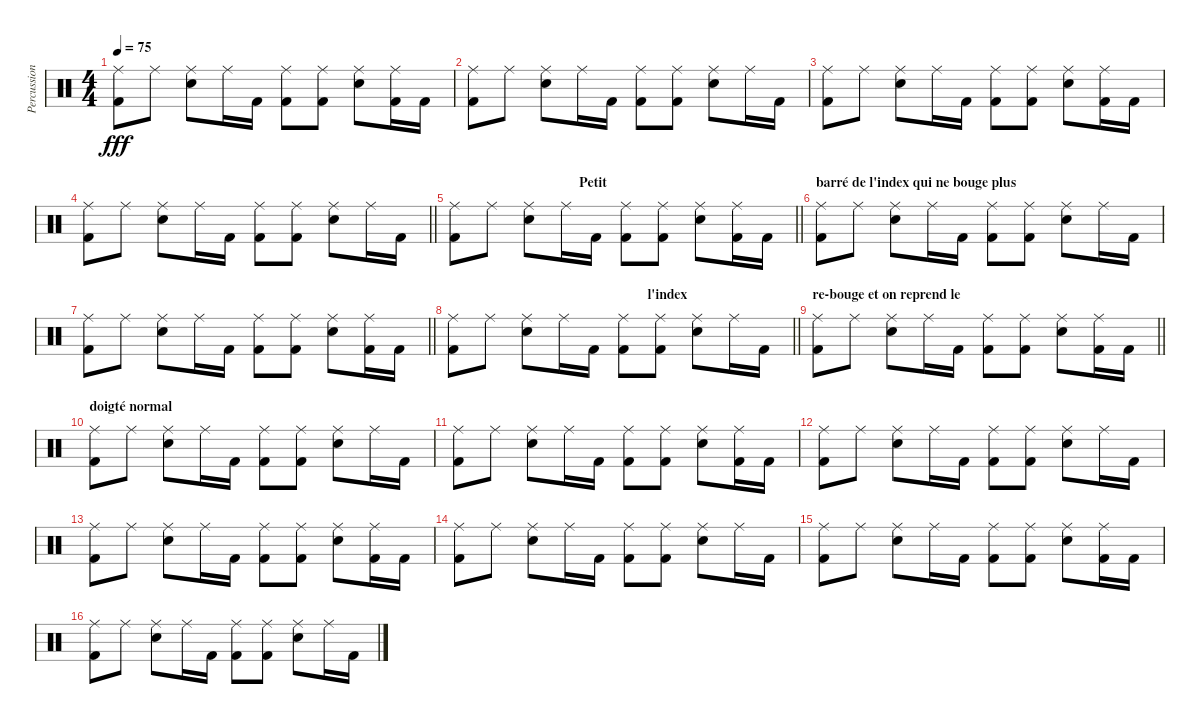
\track ("Percussions" "Percussion") {instrument percussion}
\staff {score}
\articulation defaults
\ts (4 4)
\tempo 75
\clef neutral
\ks c
("Kick (hit) 2" "Ride (middle)").8{dy fff} "Ride (middle)".8 ("Ride (middle)" "Snare (hit) 2").8 "Ride (middle)".16 "Kick (hit) 2".16 ("Ride (middle)" "Kick (hit) 2").8 ("Kick (hit) 2" "Ride (middle)").8 ("Ride (middle)" "Snare (hit) 2").8 ("Ride (middle)" "Kick (hit) 2").16 "Kick (hit) 2".16 |
("Kick (hit) 2" "Ride (middle)").8 "Ride (middle)".8 ("Ride (middle)" "Snare (hit) 2").8 "Ride (middle)".16 "Kick (hit) 2".16 ("Ride (middle)" "Kick (hit) 2").8 ("Kick (hit) 2" "Ride (middle)").8 ("Ride (middle)" "Snare (hit) 2").8 "Ride (middle)".16 "Kick (hit) 2".16 |
("Kick (hit) 2" "Ride (middle)").8 "Ride (middle)".8 ("Ride (middle)" "Snare (hit) 2").8 "Ride (middle)".16 "Kick (hit) 2".16 ("Ride (middle)" "Kick (hit) 2").8 ("Kick (hit) 2" "Ride (middle)").8 ("Ride (middle)" "Snare (hit) 2").8 ("Ride (middle)" "Kick (hit) 2").16 "Kick (hit) 2".16 |
\barLineRight lightlight
("Kick (hit) 2" "Ride (middle)").8 "Ride (middle)".8 ("Ride (middle)" "Snare (hit) 2").8 "Ride (middle)".16 "Kick (hit) 2".16 ("Ride (middle)" "Kick (hit) 2").8 ("Kick (hit) 2" "Ride (middle)").8 ("Ride (middle)" "Snare (hit) 2").8 "Ride (middle)".16 "Kick (hit) 2".16 |
\section ("" "                                     Petit")
\barLineRight lightlight
("Kick (hit) 2" "Ride (middle)").8 "Ride (middle)".8 ("Ride (middle)" "Snare (hit) 2").8 "Ride (middle)".16 "Kick (hit) 2".16 ("Ride (middle)" "Kick (hit) 2").8 ("Kick (hit) 2" "Ride (middle)").8 ("Ride (middle)" "Snare (hit) 2").8 ("Ride (middle)" "Kick (hit) 2").16 "Kick (hit) 2".16 |
\section ("" "barré de l'index qui ne bouge plus")
("Kick (hit) 2" "Ride (middle)").8 "Ride (middle)".8 ("Ride (middle)" "Snare (hit) 2").8 "Ride (middle)".16 "Kick (hit) 2".16 ("Ride (middle)" "Kick (hit) 2").8 ("Kick (hit) 2" "Ride (middle)").8 ("Ride (middle)" "Snare (hit) 2").8 "Ride (middle)".16 "Kick (hit) 2".16 |
\barLineRight lightlight
("Kick (hit) 2" "Ride (middle)").8 "Ride (middle)".8 ("Ride (middle)" "Snare (hit) 2").8 "Ride (middle)".16 "Kick (hit) 2".16 ("Ride (middle)" "Kick (hit) 2").8 ("Kick (hit) 2" "Ride (middle)").8 ("Ride (middle)" "Snare (hit) 2").8 ("Ride (middle)" "Kick (hit) 2").16 "Kick (hit) 2".16 |
\section ("" "                                                         l'index")
\barLineRight lightlight
("Kick (hit) 2" "Ride (middle)").8 "Ride (middle)".8 ("Ride (middle)" "Snare (hit) 2").8 "Ride (middle)".16 "Kick (hit) 2".16 ("Ride (middle)" "Kick (hit) 2").8 ("Kick (hit) 2" "Ride (middle)").8 ("Ride (middle)" "Snare (hit) 2").8 "Ride (middle)".16 "Kick (hit) 2".16 |
\section ("" "re-bouge et on reprend le")
\barLineRight lightlight
("Kick (hit) 2" "Ride (middle)").8 "Ride (middle)".8 ("Ride (middle)" "Snare (hit) 2").8 "Ride (middle)".16 "Kick (hit) 2".16 ("Ride (middle)" "Kick (hit) 2").8 ("Kick (hit) 2" "Ride (middle)").8 ("Ride (middle)" "Snare (hit) 2").8 ("Ride (middle)" "Kick (hit) 2").16 "Kick (hit) 2".16 |
\section ("" "doigté normal")
("Kick (hit) 2" "Ride (middle)").8 "Ride (middle)".8 ("Ride (middle)" "Snare (hit) 2").8 "Ride (middle)".16 "Kick (hit) 2".16 ("Ride (middle)" "Kick (hit) 2").8 ("Kick (hit) 2" "Ride (middle)").8 ("Ride (middle)" "Snare (hit) 2").8 "Ride (middle)".16 "Kick (hit) 2".16 |
("Kick (hit) 2" "Ride (middle)").8 "Ride (middle)".8 ("Ride (middle)" "Snare (hit) 2").8 "Ride (middle)".16 "Kick (hit) 2".16 ("Ride (middle)" "Kick (hit) 2").8 ("Kick (hit) 2" "Ride (middle)").8 ("Ride (middle)" "Snare (hit) 2").8 ("Ride (middle)" "Kick (hit) 2").16 "Kick (hit) 2".16 |
("Kick (hit) 2" "Ride (middle)").8 "Ride (middle)".8 ("Ride (middle)" "Snare (hit) 2").8 "Ride (middle)".16 "Kick (hit) 2".16 ("Ride (middle)" "Kick (hit) 2").8 ("Kick (hit) 2" "Ride (middle)").8 ("Ride (middle)" "Snare (hit) 2").8 "Ride (middle)".16 "Kick (hit) 2".16 |
("Kick (hit) 2" "Ride (middle)").8 "Ride (middle)".8 ("Ride (middle)" "Snare (hit) 2").8 "Ride (middle)".16 "Kick (hit) 2".16 ("Ride (middle)" "Kick (hit) 2").8 ("Kick (hit) 2" "Ride (middle)").8 ("Ride (middle)" "Snare (hit) 2").8 ("Ride (middle)" "Kick (hit) 2").16 "Kick (hit) 2".16 |
("Kick (hit) 2" "Ride (middle)").8 "Ride (middle)".8 ("Ride (middle)" "Snare (hit) 2").8 "Ride (middle)".16 "Kick (hit) 2".16 ("Ride (middle)" "Kick (hit) 2").8 ("Kick (hit) 2" "Ride (middle)").8 ("Ride (middle)" "Snare (hit) 2").8 "Ride (middle)".16 "Kick (hit) 2".16 |
("Kick (hit) 2" "Ride (middle)").8 "Ride (middle)".8 ("Ride (middle)" "Snare (hit) 2").8 "Ride (middle)".16 "Kick (hit) 2".16 ("Ride (middle)" "Kick (hit) 2").8 ("Kick (hit) 2" "Ride (middle)").8 ("Ride (middle)" "Snare (hit) 2").8 ("Ride (middle)" "Kick (hit) 2").16 "Kick (hit) 2".16 |
("Kick (hit) 2" "Ride (middle)").8 "Ride (middle)".8 ("Ride (middle)" "Snare (hit) 2").8 "Ride (middle)".16 "Kick (hit) 2".16 ("Ride (middle)" "Kick (hit) 2").8 ("Kick (hit) 2" "Ride (middle)").8 ("Ride (middle)" "Snare (hit) 2").8 "Ride (middle)".16 "Kick (hit) 2".16
